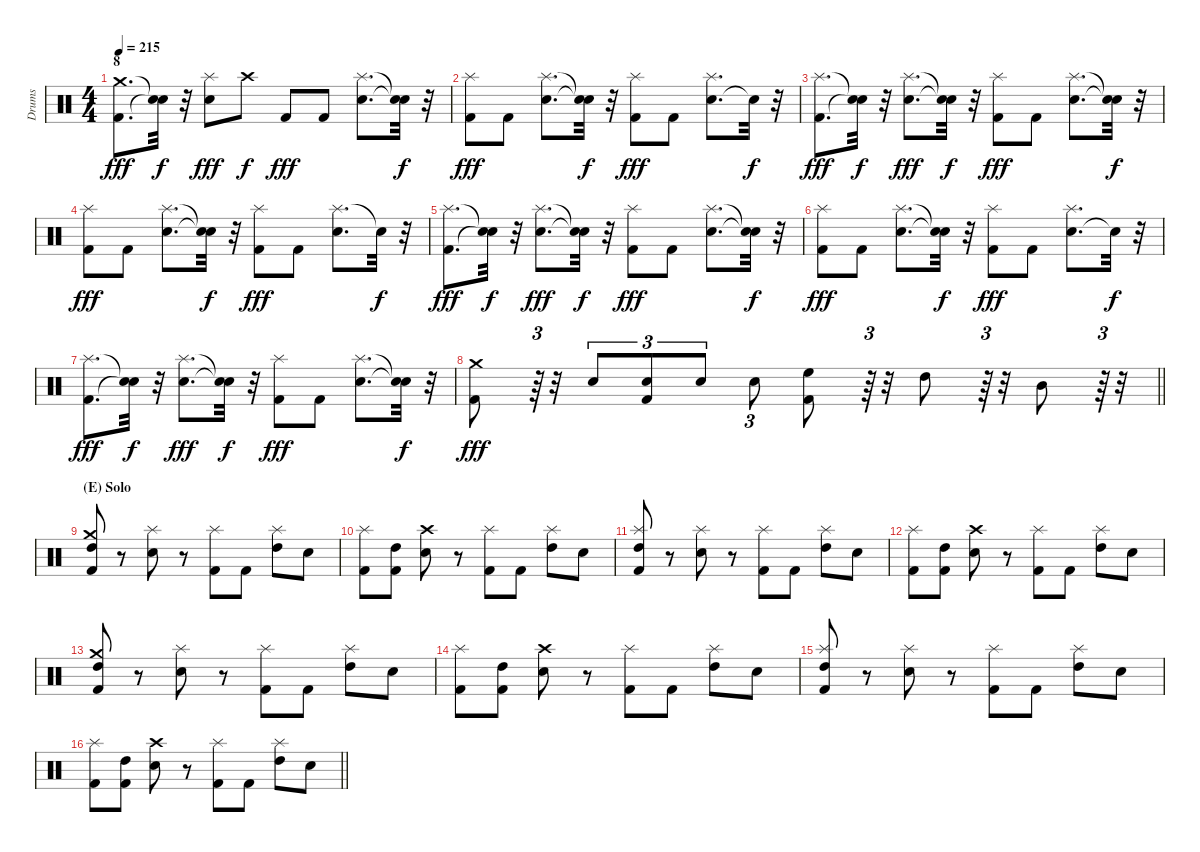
\track ("Drums" "Drums") {instrument percussion}
\staff {score}
\articulation defaults
\ts (4 4)
\section ("" "8")
\tempo 215
\clef neutral
\ks c
("Kick (hit) 2" "Crash medium (hit)").8{d dy fff} ("Snare (hit)"{t} "Snare (hit)"{t}).32{dy f} r.32 ("Splash (hit)" "Electric Snare (hit)").8{dy fff} "Crash high (hit)".8{dy f} "Kick (hit) 2".8{dy fff} "Kick (hit) 2".8 ("Splash (hit)" "Electric Snare (hit)").8{d} ("Snare (hit)"{t} "Snare (hit)"{t}).32{dy f} r.32 |
("Kick (hit) 2" "Splash (hit)").8{dy fff} "Kick (hit) 2".8 ("Splash (hit)" "Electric Snare (hit)").8{d} ("Snare (hit)"{t} "Snare (hit)"{t}).32{dy f} r.32 ("Splash (hit)" "Kick (hit) 2").8{dy fff} "Kick (hit) 2".8 ("Electric Snare (hit)" "Splash (hit)").8{d} "Snare (hit)"{t}.32{dy f} r.32 |
("Splash (hit)" "Kick (hit) 2").8{d dy fff} ("Snare (hit)"{t} "Snare (hit)"{t}).32{dy f} r.32 ("Splash (hit)" "Electric Snare (hit)").8{d dy fff} ("Snare (hit)"{t} "Snare (hit)"{t}).32{dy f} r.32 ("Splash (hit)" "Kick (hit) 2").8{dy fff} "Kick (hit) 2".8 ("Splash (hit)" "Electric Snare (hit)").8{d} ("Snare (hit)"{t} "Snare (hit)"{t}).32{dy f} r.32 |
("Kick (hit) 2" "Splash (hit)").8{dy fff} "Kick (hit) 2".8 ("Electric Snare (hit)" "Splash (hit)").8{d} ("Snare (hit)"{t} "Snare (hit)"{t}).32{dy f} r.32 ("Kick (hit) 2" "Splash (hit)").8{dy fff} "Kick (hit) 2".8 ("Splash (hit)" "Electric Snare (hit)").8{d} "Snare (hit)"{t}.32{dy f} r.32 |
("Splash (hit)" "Kick (hit) 2").8{d dy fff} ("Snare (hit)"{t} "Snare (hit)"{t}).32{dy f} r.32 ("Electric Snare (hit)" "Splash (hit)").8{d dy fff} ("Snare (hit)"{t} "Snare (hit)"{t}).32{dy f} r.32 ("Kick (hit) 2" "Splash (hit)").8{dy fff} "Kick (hit) 2".8 ("Electric Snare (hit)" "Splash (hit)").8{d} ("Snare (hit)"{t} "Snare (hit)"{t}).32{dy f} r.32 |
("Kick (hit) 2" "Splash (hit)").8{dy fff} "Kick (hit) 2".8 ("Splash (hit)" "Electric Snare (hit)").8{d} ("Snare (hit)"{t} "Snare (hit)"{t}).32{dy f} r.32 ("Splash (hit)" "Kick (hit) 2").8{dy fff} "Kick (hit) 2".8 ("Electric Snare (hit)" "Splash (hit)").8{d} "Snare (hit)"{t}.32{dy f} r.32 |
("Splash (hit)" "Kick (hit) 2").8{d dy fff} ("Snare (hit)"{t} "Snare (hit)"{t}).32{dy f} r.32 ("Splash (hit)" "Electric Snare (hit)").8{d dy fff} ("Snare (hit)"{t} "Snare (hit)"{t}).32{dy f} r.32 ("Splash (hit)" "Kick (hit) 2").8{dy fff} "Kick (hit) 2".8 ("Splash (hit)" "Electric Snare (hit)").8{d} ("Snare (hit)"{t} "Snare (hit)"{t}).32{dy f} r.32 |
\barLineRight lightlight
("Kick (hit) 2" "Crash medium (hit)").8{dy fff} r.64{tu (3 2)} r.32 "Electric Snare (hit)".8{tu (3 2)} ("Kick (hit) 2" "Electric Snare (hit)").8{tu (3 2)} "Electric Snare (hit)".8{tu (3 2)} "Electric Snare (hit)".8{tu (3 2)} ("Kick (hit) 2" "High Floor Tom (hit)").8 r.64{tu (3 2)} r.32 "High Tom (hit)".8 r.64{tu (3 2)} r.32 "Mid Tom (hit)".8 r.64{tu (3 2)} r.32 |
\section ("" "(E) Solo")
("Crash medium (hit)" "Kick (hit) 2" "High Tom (hit)").8 r.8 ("Splash (hit)" "Electric Snare (hit)").8 r.8 ("Splash (hit)" "Kick (hit) 2").8 "Kick (hit) 2".8 ("High Tom (hit)" "Splash (hit)").8 "Electric Snare (hit)".8 |
("Kick (hit) 2" "Splash (hit)").8 ("Kick (hit) 2" "High Tom (hit)").8 ("Electric Snare (hit)" "Crash high (hit)").8 r.8 ("Splash (hit)" "Kick (hit) 2").8 "Kick (hit) 2".8 ("High Tom (hit)" "Splash (hit)").8 "Electric Snare (hit)".8 |
("High Tom (hit)" "Kick (hit) 2" "Splash (hit)").8 r.8 ("Splash (hit)" "Electric Snare (hit)").8 r.8 ("Kick (hit) 2" "Splash (hit)").8 "Kick (hit) 2".8 ("High Tom (hit)" "Splash (hit)").8 "Electric Snare (hit)".8 |
("Kick (hit) 2" "Splash (hit)").8 ("High Tom (hit)" "Kick (hit) 2").8 ("Electric Snare (hit)" "Crash high (hit)").8 r.8 ("Kick (hit) 2" "Splash (hit)").8 "Kick (hit) 2".8 ("Splash (hit)" "High Tom (hit)").8 "Electric Snare (hit)".8 |
("High Tom (hit)" "Crash medium (hit)" "Kick (hit) 2").8 r.8 ("Electric Snare (hit)" "Splash (hit)").8 r.8 ("Kick (hit) 2" "Splash (hit)").8 "Kick (hit) 2".8 ("Splash (hit)" "High Tom (hit)").8 "Electric Snare (hit)".8 |
("Splash (hit)" "Kick (hit) 2").8 ("High Tom (hit)" "Kick (hit) 2").8 ("Crash high (hit)" "Electric Snare (hit)").8 r.8 ("Splash (hit)" "Kick (hit) 2").8 "Kick (hit) 2".8 ("Splash (hit)" "High Tom (hit)").8 "Electric Snare (hit)".8 |
("Splash (hit)" "High Tom (hit)" "Kick (hit) 2").8 r.8 ("Splash (hit)" "Electric Snare (hit)").8 r.8 ("Kick (hit) 2" "Splash (hit)").8 "Kick (hit) 2".8 ("Splash (hit)" "High Tom (hit)").8 "Electric Snare (hit)".8 |
\barLineRight lightlight
("Kick (hit) 2" "Splash (hit)").8 ("High Tom (hit)" "Kick (hit) 2").8 ("Electric Snare (hit)" "Crash high (hit)").8 r.8 ("Splash (hit)" "Kick (hit) 2").8 "Kick (hit) 2".8 ("Splash (hit)" "High Tom (hit)").8 "Electric Snare (hit)".8
